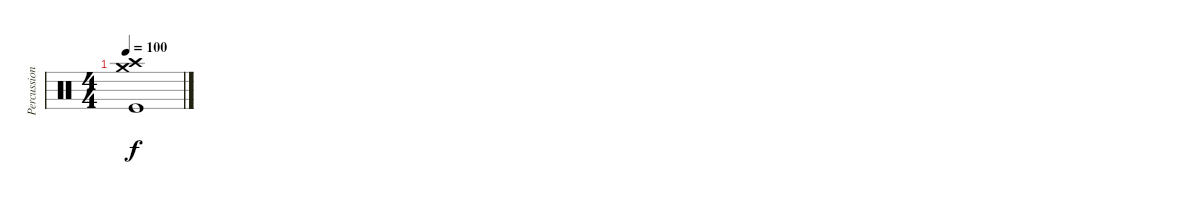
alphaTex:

\track ("Percussion" "Percussion") {instrument percussion}
\staff {score}
\articulation defaults
\ts (4 4)
\tempo 100
\clef neutral
\ks c
("Crash medium (hit)" "Crash high (hit)" "Kick (hit)").1{dy f}
